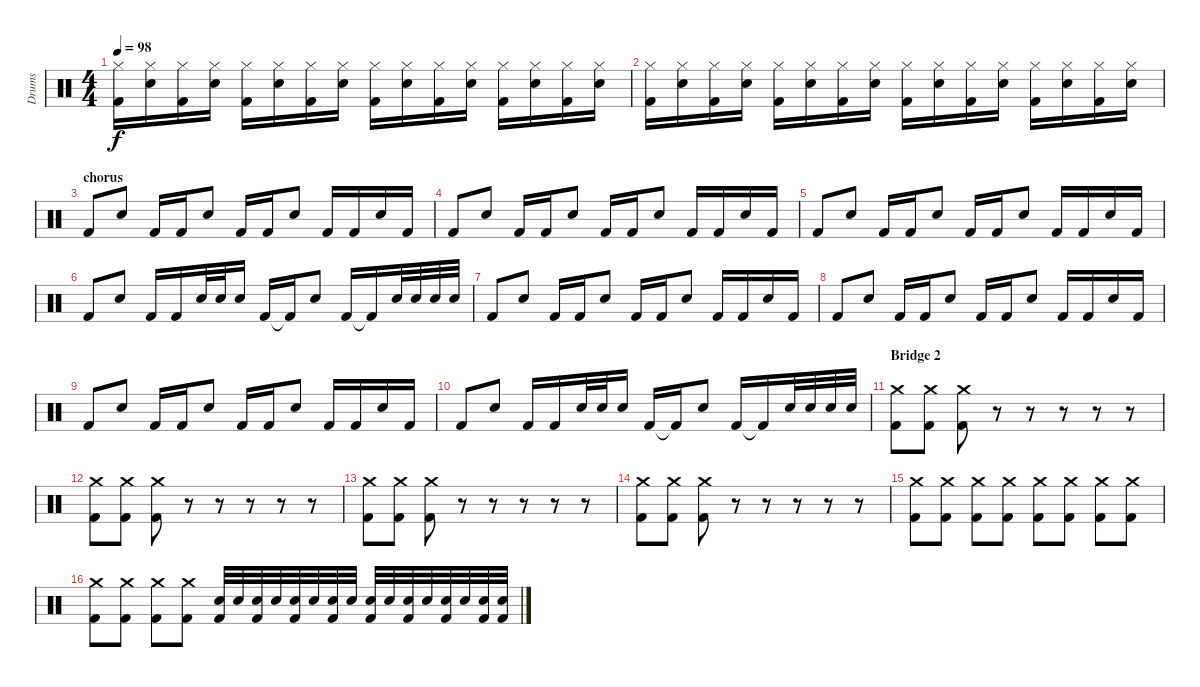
\track ("Drums" "Drums") {instrument percussion}
\staff {score}
\articulation defaults
\ts (4 4)
\tempo 98
\clef neutral
\ks c
("Hi-Hat (closed)" "Kick (hit) 2").16{dy f} ("Hi-Hat (closed)" "Electric Snare (hit)").16 ("Hi-Hat (closed)" "Kick (hit) 2").16 ("Hi-Hat (closed)" "Electric Snare (hit)").16 ("Hi-Hat (closed)" "Kick (hit) 2").16 ("Hi-Hat (closed)" "Electric Snare (hit)").16 ("Hi-Hat (closed)" "Kick (hit) 2").16 ("Hi-Hat (closed)" "Electric Snare (hit)").16 ("Hi-Hat (closed)" "Kick (hit) 2").16 ("Hi-Hat (closed)" "Electric Snare (hit)").16 ("Hi-Hat (closed)" "Kick (hit) 2").16 ("Hi-Hat (closed)" "Electric Snare (hit)").16 ("Hi-Hat (closed)" "Kick (hit) 2").16 ("Hi-Hat (closed)" "Electric Snare (hit)").16 ("Hi-Hat (closed)" "Kick (hit) 2").16 ("Hi-Hat (closed)" "Electric Snare (hit)").16 |
("Hi-Hat (closed)" "Kick (hit) 2").16 ("Hi-Hat (closed)" "Electric Snare (hit)").16 ("Hi-Hat (closed)" "Kick (hit) 2").16 ("Hi-Hat (closed)" "Electric Snare (hit)").16 ("Hi-Hat (closed)" "Kick (hit) 2").16 ("Hi-Hat (closed)" "Electric Snare (hit)").16 ("Hi-Hat (closed)" "Kick (hit) 2").16 ("Hi-Hat (closed)" "Electric Snare (hit)").16 ("Hi-Hat (closed)" "Kick (hit) 2").16 ("Hi-Hat (closed)" "Electric Snare (hit)").16 ("Hi-Hat (closed)" "Kick (hit) 2").16 ("Hi-Hat (closed)" "Electric Snare (hit)").16 ("Hi-Hat (closed)" "Kick (hit) 2").16 ("Hi-Hat (closed)" "Electric Snare (hit)").16 ("Hi-Hat (closed)" "Kick (hit) 2").16 ("Hi-Hat (closed)" "Electric Snare (hit)").16 |
\section ("" "chorus")
"Kick (hit) 2".8 "Electric Snare (hit)".8 "Kick (hit) 2".16 "Kick (hit) 2".16 "Electric Snare (hit)".8 "Kick (hit) 2".16 "Kick (hit) 2".16 "Electric Snare (hit)".8 "Kick (hit) 2".16 "Kick (hit) 2".16 "Electric Snare (hit)".16 "Kick (hit) 2".16 |
"Kick (hit) 2".8 "Electric Snare (hit)".8 "Kick (hit) 2".16 "Kick (hit) 2".16 "Electric Snare (hit)".8 "Kick (hit) 2".16 "Kick (hit) 2".16 "Electric Snare (hit)".8 "Kick (hit) 2".16 "Kick (hit) 2".16 "Electric Snare (hit)".16 "Kick (hit) 2".16 |
"Kick (hit) 2".8 "Electric Snare (hit)".8 "Kick (hit) 2".16 "Kick (hit) 2".16 "Electric Snare (hit)".8 "Kick (hit) 2".16 "Kick (hit) 2".16 "Electric Snare (hit)".8 "Kick (hit) 2".16 "Kick (hit) 2".16 "Electric Snare (hit)".16 "Kick (hit) 2".16 |
"Kick (hit) 2".8 "Electric Snare (hit)".8 "Kick (hit) 2".16 "Kick (hit) 2".16 "Electric Snare (hit)".32 "Electric Snare (hit)".32 "Electric Snare (hit)".16 "Kick (hit) 2".16 "Kick (hit) 2"{t}.16 "Electric Snare (hit)".8 "Kick (hit) 2".16 "Kick (hit) 2"{t}.16 "Electric Snare (hit)".32 "Electric Snare (hit)".32 "Electric Snare (hit)".32 "Electric Snare (hit)".32 |
"Kick (hit) 2".8 "Electric Snare (hit)".8 "Kick (hit) 2".16 "Kick (hit) 2".16 "Electric Snare (hit)".8 "Kick (hit) 2".16 "Kick (hit) 2".16 "Electric Snare (hit)".8 "Kick (hit) 2".16 "Kick (hit) 2".16 "Electric Snare (hit)".16 "Kick (hit) 2".16 |
"Kick (hit) 2".8 "Electric Snare (hit)".8 "Kick (hit) 2".16 "Kick (hit) 2".16 "Electric Snare (hit)".8 "Kick (hit) 2".16 "Kick (hit) 2".16 "Electric Snare (hit)".8 "Kick (hit) 2".16 "Kick (hit) 2".16 "Electric Snare (hit)".16 "Kick (hit) 2".16 |
"Kick (hit) 2".8 "Electric Snare (hit)".8 "Kick (hit) 2".16 "Kick (hit) 2".16 "Electric Snare (hit)".8 "Kick (hit) 2".16 "Kick (hit) 2".16 "Electric Snare (hit)".8 "Kick (hit) 2".16 "Kick (hit) 2".16 "Electric Snare (hit)".16 "Kick (hit) 2".16 |
"Kick (hit) 2".8 "Electric Snare (hit)".8 "Kick (hit) 2".16 "Kick (hit) 2".16 "Electric Snare (hit)".32 "Electric Snare (hit)".32 "Electric Snare (hit)".16 "Kick (hit) 2".16 "Kick (hit) 2"{t}.16 "Electric Snare (hit)".8 "Kick (hit) 2".16 "Kick (hit) 2"{t}.16 "Electric Snare (hit)".32 "Electric Snare (hit)".32 "Electric Snare (hit)".32 "Electric Snare (hit)".32 |
\section ("" "Bridge 2")
("Crash medium (hit)" "Kick (hit) 2").8 ("Crash medium (hit)" "Kick (hit) 2").8 ("Crash medium (hit)" "Kick (hit) 2").8 r.8 r.8 r.8 r.8 r.8 |
("Crash medium (hit)" "Kick (hit) 2").8 ("Crash medium (hit)" "Kick (hit) 2").8 ("Crash medium (hit)" "Kick (hit) 2").8 r.8 r.8 r.8 r.8 r.8 |
("Crash medium (hit)" "Kick (hit) 2").8 ("Crash medium (hit)" "Kick (hit) 2").8 ("Crash medium (hit)" "Kick (hit) 2").8 r.8 r.8 r.8 r.8 r.8 |
("Crash medium (hit)" "Kick (hit) 2").8 ("Crash medium (hit)" "Kick (hit) 2").8 ("Crash medium (hit)" "Kick (hit) 2").8 r.8 r.8 r.8 r.8 r.8 |
("Crash medium (hit)" "Kick (hit) 2").8 ("Crash medium (hit)" "Kick (hit) 2").8 ("Crash medium (hit)" "Kick (hit) 2").8 ("Crash medium (hit)" "Kick (hit) 2").8 ("Crash medium (hit)" "Kick (hit) 2").8 ("Crash medium (hit)" "Kick (hit) 2").8 ("Crash medium (hit)" "Kick (hit) 2").8 ("Crash medium (hit)" "Kick (hit) 2").8 |
("Crash medium (hit)" "Kick (hit) 2").8 ("Crash medium (hit)" "Kick (hit) 2").8 ("Crash medium (hit)" "Kick (hit) 2").8 ("Crash medium (hit)" "Kick (hit) 2").8 ("Electric Snare (hit)" "Kick (hit) 2").32 "Electric Snare (hit)".32 ("Electric Snare (hit)" "Kick (hit) 2").32 "Electric Snare (hit)".32 ("Electric Snare (hit)" "Kick (hit) 2").32 "Electric Snare (hit)".32 ("Electric Snare (hit)" "Kick (hit) 2").32 "Electric Snare (hit)".32 ("Electric Snare (hit)" "Kick (hit) 2").32 "Electric Snare (hit)".32 ("Electric Snare (hit)" "Kick (hit) 2").32 "Electric Snare (hit)".32 ("Electric Snare (hit)" "Kick (hit) 2").32 "Electric Snare (hit)".32 ("Electric Snare (hit)" "Kick (hit) 2").32 ("Electric Snare (hit)" "Kick (hit) 2").32
